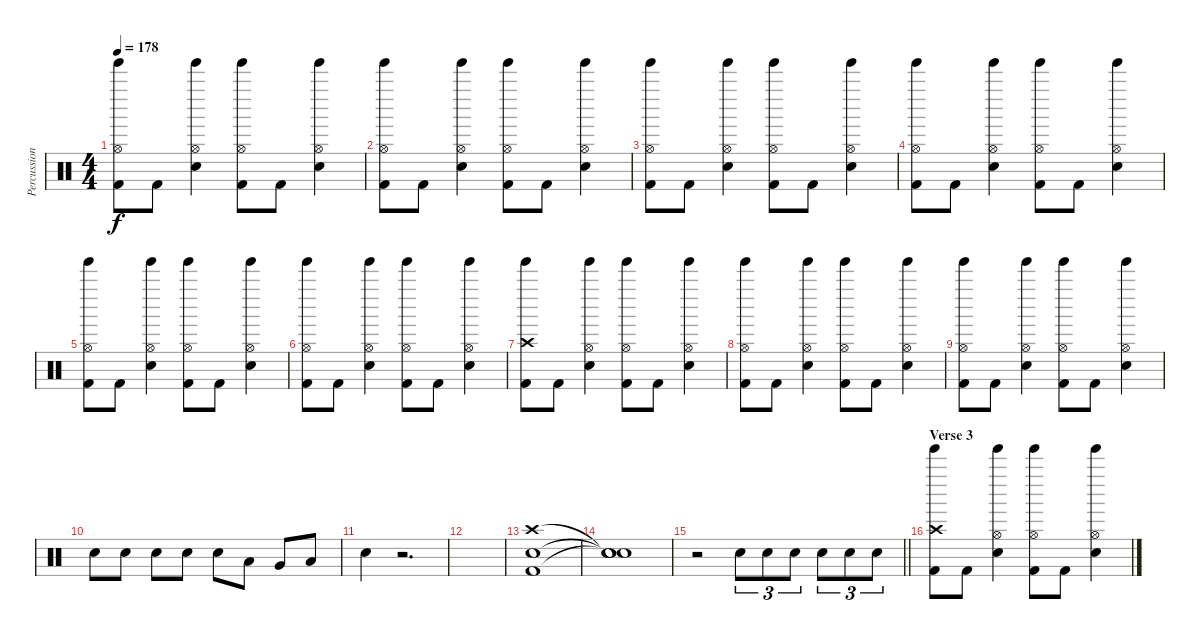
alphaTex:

\track ("Percussion" "Percussion") {instrument percussion}
\staff {score}
\articulation defaults
\ts (4 4)
\tempo 178
\clef neutral
\ks c
("Hi-Hat (open)" "Tinkle Bell (hit)" "Kick (hit) 2").8{dy f} "Kick (hit) 2".8 ("Hi-Hat (open)" "Tinkle Bell (hit)" "Snare (hit) 2").4 ("Hi-Hat (open)" "Tinkle Bell (hit)" "Kick (hit) 2").8 "Kick (hit) 2".8 ("Hi-Hat (open)" "Tinkle Bell (hit)" "Snare (hit) 2").4 |
("Hi-Hat (open)" "Tinkle Bell (hit)" "Kick (hit) 2").8 "Kick (hit) 2".8 ("Hi-Hat (open)" "Tinkle Bell (hit)" "Snare (hit) 2").4 ("Hi-Hat (open)" "Tinkle Bell (hit)" "Kick (hit) 2").8 "Kick (hit) 2".8 ("Hi-Hat (open)" "Tinkle Bell (hit)" "Snare (hit) 2").4 |
("Hi-Hat (open)" "Tinkle Bell (hit)" "Kick (hit) 2").8 "Kick (hit) 2".8 ("Hi-Hat (open)" "Tinkle Bell (hit)" "Snare (hit) 2").4 ("Hi-Hat (open)" "Tinkle Bell (hit)" "Kick (hit) 2").8 "Kick (hit) 2".8 ("Hi-Hat (open)" "Tinkle Bell (hit)" "Snare (hit) 2").4 |
("Hi-Hat (open)" "Tinkle Bell (hit)" "Kick (hit) 2").8 "Kick (hit) 2".8 ("Hi-Hat (open)" "Tinkle Bell (hit)" "Snare (hit) 2").4 ("Hi-Hat (open)" "Tinkle Bell (hit)" "Kick (hit) 2").8 "Kick (hit) 2".8 ("Hi-Hat (open)" "Tinkle Bell (hit)" "Snare (hit) 2").4 |
("Hi-Hat (open)" "Tinkle Bell (hit)" "Kick (hit) 2").8 "Kick (hit) 2".8 ("Hi-Hat (open)" "Tinkle Bell (hit)" "Snare (hit) 2").4 ("Hi-Hat (open)" "Tinkle Bell (hit)" "Kick (hit) 2").8 "Kick (hit) 2".8 ("Hi-Hat (open)" "Tinkle Bell (hit)" "Snare (hit) 2").4 |
("Hi-Hat (open)" "Tinkle Bell (hit)" "Kick (hit) 2").8 "Kick (hit) 2".8 ("Hi-Hat (open)" "Tinkle Bell (hit)" "Snare (hit) 2").4 ("Hi-Hat (open)" "Tinkle Bell (hit)" "Kick (hit) 2").8 "Kick (hit) 2".8 ("Hi-Hat (open)" "Tinkle Bell (hit)" "Snare (hit) 2").4 |
("Crash high (hit)" "Tinkle Bell (hit)" "Kick (hit) 2").8 "Kick (hit) 2".8 ("Hi-Hat (open)" "Tinkle Bell (hit)" "Snare (hit) 2").4 ("Hi-Hat (open)" "Tinkle Bell (hit)" "Kick (hit) 2").8 "Kick (hit) 2".8 ("Hi-Hat (open)" "Tinkle Bell (hit)" "Snare (hit) 2").4 |
("Hi-Hat (open)" "Tinkle Bell (hit)" "Kick (hit) 2").8 "Kick (hit) 2".8 ("Hi-Hat (open)" "Tinkle Bell (hit)" "Snare (hit) 2").4 ("Hi-Hat (open)" "Tinkle Bell (hit)" "Kick (hit) 2").8 "Kick (hit) 2".8 ("Hi-Hat (open)" "Tinkle Bell (hit)" "Snare (hit) 2").4 |
("Hi-Hat (open)" "Tinkle Bell (hit)" "Kick (hit) 2").8 "Kick (hit) 2".8 ("Hi-Hat (open)" "Tinkle Bell (hit)" "Snare (hit) 2").4 ("Hi-Hat (open)" "Tinkle Bell (hit)" "Kick (hit) 2").8 "Kick (hit) 2".8 ("Hi-Hat (open)" "Tinkle Bell (hit)" "Snare (hit) 2").4 |
"Snare (hit) 2".8 "Snare (hit) 2".8 "Snare (hit) 2".8 "Snare (hit) 2".8 "Snare (hit) 2".8 "Low Tom (hit)".8 "Very Low Tom (hit)".8 "Low Floor Tom (hit)".8 |
"Snare (hit) 2".4 r.2{d} |
|
("Crash high (hit)" "Snare (hit) 2" "Kick (hit) 2").1 |
("Snare (hit)"{t} "Snare (hit)"{t} "Snare (hit)"{t}).1 |
\barLineRight lightlight
r.2 "Snare (hit) 2".8{tu (3 2)} "Snare (hit) 2".8{tu (3 2)} "Snare (hit) 2".8{tu (3 2)} "Snare (hit) 2".8{tu (3 2)} "Snare (hit) 2".8{tu (3 2)} "Snare (hit) 2".8{tu (3 2)} |
\section ("" "Verse 3")
("Crash high (hit)" "Tinkle Bell (hit)" "Kick (hit) 2").8 "Kick (hit) 2".8 ("Hi-Hat (open)" "Tinkle Bell (hit)" "Snare (hit) 2").4 ("Hi-Hat (open)" "Tinkle Bell (hit)" "Kick (hit) 2").8 "Kick (hit) 2".8 ("Hi-Hat (open)" "Tinkle Bell (hit)" "Snare (hit) 2").4
